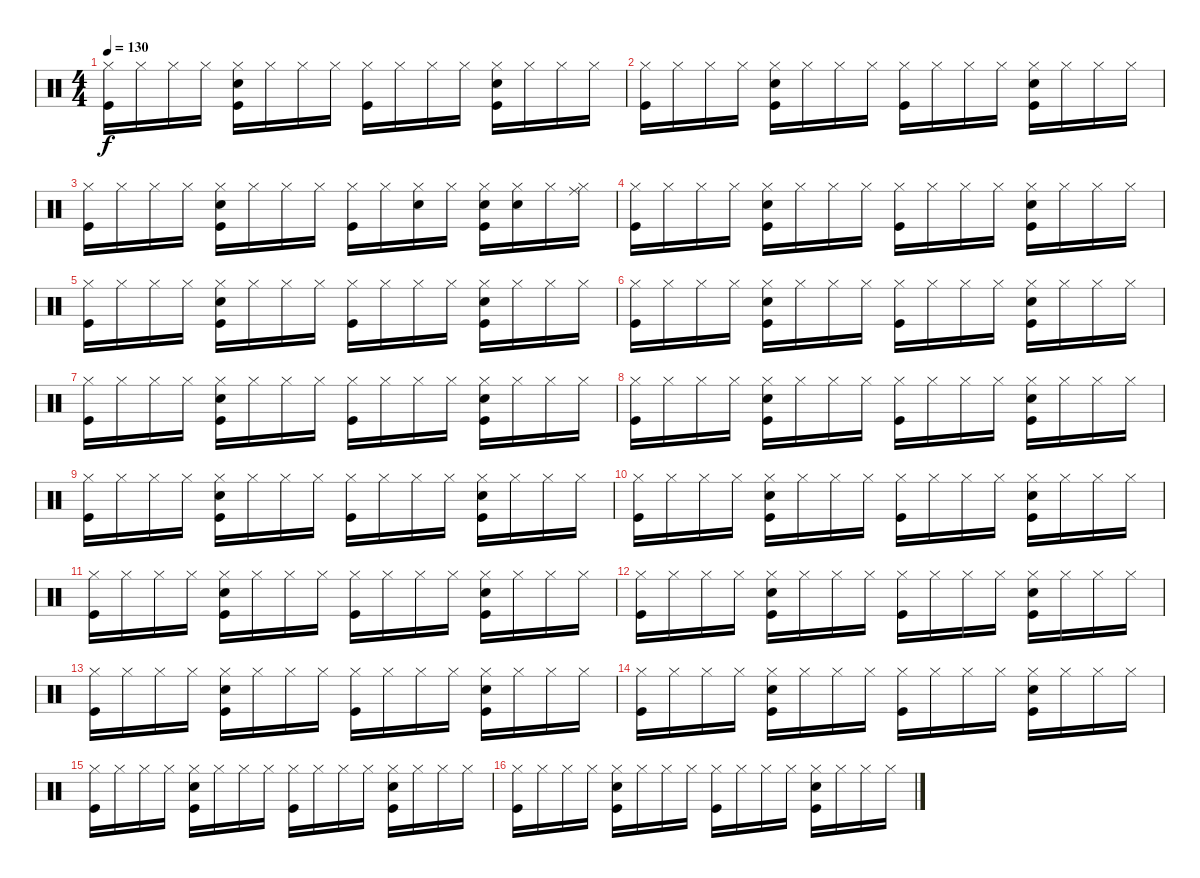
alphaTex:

\track "" {instrument percussion}
\staff {score}
\articulation defaults
\ts (4 4)
\tempo 130
\clef neutral
\ks c
("Hi-Hat (closed)" "Kick (hit)").16{dy f} "Hi-Hat (closed)".16 "Hi-Hat (closed)".16 "Hi-Hat (closed)".16 ("Snare (hit) 2" "Hi-Hat (closed)" "Kick (hit)").16 "Hi-Hat (closed)".16 "Hi-Hat (closed)".16 "Hi-Hat (closed)".16 ("Hi-Hat (closed)" "Kick (hit)").16 "Hi-Hat (closed)".16 "Hi-Hat (closed)".16 "Hi-Hat (closed)".16 ("Snare (hit) 2" "Hi-Hat (closed)" "Kick (hit)").16 "Hi-Hat (closed)".16 "Hi-Hat (closed)".16 "Hi-Hat (closed)".16 |
("Hi-Hat (closed)" "Kick (hit)").16 "Hi-Hat (closed)".16 "Hi-Hat (closed)".16 "Hi-Hat (closed)".16 ("Snare (hit) 2" "Hi-Hat (closed)" "Kick (hit)").16 "Hi-Hat (closed)".16 "Hi-Hat (closed)".16 "Hi-Hat (closed)".16 ("Hi-Hat (closed)" "Kick (hit)").16 "Hi-Hat (closed)".16 "Hi-Hat (closed)".16 "Hi-Hat (closed)".16 ("Snare (hit) 2" "Hi-Hat (closed)" "Kick (hit)").16 "Hi-Hat (closed)".16 "Hi-Hat (closed)".16 "Hi-Hat (closed)".16 |
("Hi-Hat (closed)" "Kick (hit)").16 "Hi-Hat (closed)".16 "Hi-Hat (closed)".16 "Hi-Hat (closed)".16 ("Snare (hit) 2" "Hi-Hat (closed)" "Kick (hit)").16 "Hi-Hat (closed)".16 "Hi-Hat (closed)".16 "Hi-Hat (closed)".16 ("Hi-Hat (closed)" "Kick (hit)").16 "Hi-Hat (closed)".16 ("Snare (hit) 2" "Hi-Hat (closed)").16 "Hi-Hat (closed)".16 ("Snare (hit) 2" "Hi-Hat (closed)" "Kick (hit)").16 ("Snare (hit) 2" "Hi-Hat (closed)").16 "Hi-Hat (closed)".16 ("Ride (middle)" "Hi-Hat (closed)").16 |
("Hi-Hat (closed)" "Kick (hit)").16 "Hi-Hat (closed)".16 "Hi-Hat (closed)".16 "Hi-Hat (closed)".16 ("Snare (hit) 2" "Hi-Hat (closed)" "Kick (hit)").16 "Hi-Hat (closed)".16 "Hi-Hat (closed)".16 "Hi-Hat (closed)".16 ("Hi-Hat (closed)" "Kick (hit)").16 "Hi-Hat (closed)".16 "Hi-Hat (closed)".16 "Hi-Hat (closed)".16 ("Snare (hit) 2" "Hi-Hat (closed)" "Kick (hit)").16 "Hi-Hat (closed)".16 "Hi-Hat (closed)".16 "Hi-Hat (closed)".16 |
("Hi-Hat (closed)" "Kick (hit)").16 "Hi-Hat (closed)".16 "Hi-Hat (closed)".16 "Hi-Hat (closed)".16 ("Snare (hit) 2" "Hi-Hat (closed)" "Kick (hit)").16 "Hi-Hat (closed)".16 "Hi-Hat (closed)".16 "Hi-Hat (closed)".16 ("Hi-Hat (closed)" "Kick (hit)").16 "Hi-Hat (closed)".16 "Hi-Hat (closed)".16 "Hi-Hat (closed)".16 ("Snare (hit) 2" "Hi-Hat (closed)" "Kick (hit)").16 "Hi-Hat (closed)".16 "Hi-Hat (closed)".16 "Hi-Hat (closed)".16 |
("Hi-Hat (closed)" "Kick (hit)").16 "Hi-Hat (closed)".16 "Hi-Hat (closed)".16 "Hi-Hat (closed)".16 ("Snare (hit) 2" "Hi-Hat (closed)" "Kick (hit)").16 "Hi-Hat (closed)".16 "Hi-Hat (closed)".16 "Hi-Hat (closed)".16 ("Hi-Hat (closed)" "Kick (hit)").16 "Hi-Hat (closed)".16 "Hi-Hat (closed)".16 "Hi-Hat (closed)".16 ("Snare (hit) 2" "Hi-Hat (closed)" "Kick (hit)").16 "Hi-Hat (closed)".16 "Hi-Hat (closed)".16 "Hi-Hat (closed)".16 |
("Hi-Hat (closed)" "Kick (hit)").16 "Hi-Hat (closed)".16 "Hi-Hat (closed)".16 "Hi-Hat (closed)".16 ("Snare (hit) 2" "Hi-Hat (closed)" "Kick (hit)").16 "Hi-Hat (closed)".16 "Hi-Hat (closed)".16 "Hi-Hat (closed)".16 ("Hi-Hat (closed)" "Kick (hit)").16 "Hi-Hat (closed)".16 "Hi-Hat (closed)".16 "Hi-Hat (closed)".16 ("Snare (hit) 2" "Hi-Hat (closed)" "Kick (hit)").16 "Hi-Hat (closed)".16 "Hi-Hat (closed)".16 "Hi-Hat (closed)".16 |
("Hi-Hat (closed)" "Kick (hit)").16 "Hi-Hat (closed)".16 "Hi-Hat (closed)".16 "Hi-Hat (closed)".16 ("Snare (hit) 2" "Hi-Hat (closed)" "Kick (hit)").16 "Hi-Hat (closed)".16 "Hi-Hat (closed)".16 "Hi-Hat (closed)".16 ("Hi-Hat (closed)" "Kick (hit)").16 "Hi-Hat (closed)".16 "Hi-Hat (closed)".16 "Hi-Hat (closed)".16 ("Snare (hit) 2" "Hi-Hat (closed)" "Kick (hit)").16 "Hi-Hat (closed)".16 "Hi-Hat (closed)".16 "Hi-Hat (closed)".16 |
("Hi-Hat (closed)" "Kick (hit)").16 "Hi-Hat (closed)".16 "Hi-Hat (closed)".16 "Hi-Hat (closed)".16 ("Snare (hit) 2" "Hi-Hat (closed)" "Kick (hit)").16 "Hi-Hat (closed)".16 "Hi-Hat (closed)".16 "Hi-Hat (closed)".16 ("Hi-Hat (closed)" "Kick (hit)").16 "Hi-Hat (closed)".16 "Hi-Hat (closed)".16 "Hi-Hat (closed)".16 ("Snare (hit) 2" "Hi-Hat (closed)" "Kick (hit)").16 "Hi-Hat (closed)".16 "Hi-Hat (closed)".16 "Hi-Hat (closed)".16 |
("Hi-Hat (closed)" "Kick (hit)").16 "Hi-Hat (closed)".16 "Hi-Hat (closed)".16 "Hi-Hat (closed)".16 ("Snare (hit) 2" "Hi-Hat (closed)" "Kick (hit)").16 "Hi-Hat (closed)".16 "Hi-Hat (closed)".16 "Hi-Hat (closed)".16 ("Hi-Hat (closed)" "Kick (hit)").16 "Hi-Hat (closed)".16 "Hi-Hat (closed)".16 "Hi-Hat (closed)".16 ("Snare (hit) 2" "Hi-Hat (closed)" "Kick (hit)").16 "Hi-Hat (closed)".16 "Hi-Hat (closed)".16 "Hi-Hat (closed)".16 |
("Hi-Hat (closed)" "Kick (hit)").16 "Hi-Hat (closed)".16 "Hi-Hat (closed)".16 "Hi-Hat (closed)".16 ("Snare (hit) 2" "Hi-Hat (closed)" "Kick (hit)").16 "Hi-Hat (closed)".16 "Hi-Hat (closed)".16 "Hi-Hat (closed)".16 ("Hi-Hat (closed)" "Kick (hit)").16 "Hi-Hat (closed)".16 "Hi-Hat (closed)".16 "Hi-Hat (closed)".16 ("Snare (hit) 2" "Hi-Hat (closed)" "Kick (hit)").16 "Hi-Hat (closed)".16 "Hi-Hat (closed)".16 "Hi-Hat (closed)".16 |
("Hi-Hat (closed)" "Kick (hit)").16 "Hi-Hat (closed)".16 "Hi-Hat (closed)".16 "Hi-Hat (closed)".16 ("Snare (hit) 2" "Hi-Hat (closed)" "Kick (hit)").16 "Hi-Hat (closed)".16 "Hi-Hat (closed)".16 "Hi-Hat (closed)".16 ("Hi-Hat (closed)" "Kick (hit)").16 "Hi-Hat (closed)".16 "Hi-Hat (closed)".16 "Hi-Hat (closed)".16 ("Snare (hit) 2" "Hi-Hat (closed)" "Kick (hit)").16 "Hi-Hat (closed)".16 "Hi-Hat (closed)".16 "Hi-Hat (closed)".16 |
("Hi-Hat (closed)" "Kick (hit)").16 "Hi-Hat (closed)".16 "Hi-Hat (closed)".16 "Hi-Hat (closed)".16 ("Snare (hit) 2" "Hi-Hat (closed)" "Kick (hit)").16 "Hi-Hat (closed)".16 "Hi-Hat (closed)".16 "Hi-Hat (closed)".16 ("Hi-Hat (closed)" "Kick (hit)").16 "Hi-Hat (closed)".16 "Hi-Hat (closed)".16 "Hi-Hat (closed)".16 ("Snare (hit) 2" "Hi-Hat (closed)" "Kick (hit)").16 "Hi-Hat (closed)".16 "Hi-Hat (closed)".16 "Hi-Hat (closed)".16 |
("Hi-Hat (closed)" "Kick (hit)").16 "Hi-Hat (closed)".16 "Hi-Hat (closed)".16 "Hi-Hat (closed)".16 ("Snare (hit) 2" "Hi-Hat (closed)" "Kick (hit)").16 "Hi-Hat (closed)".16 "Hi-Hat (closed)".16 "Hi-Hat (closed)".16 ("Hi-Hat (closed)" "Kick (hit)").16 "Hi-Hat (closed)".16 "Hi-Hat (closed)".16 "Hi-Hat (closed)".16 ("Snare (hit) 2" "Hi-Hat (closed)" "Kick (hit)").16 "Hi-Hat (closed)".16 "Hi-Hat (closed)".16 "Hi-Hat (closed)".16 |
("Hi-Hat (closed)" "Kick (hit)").16 "Hi-Hat (closed)".16 "Hi-Hat (closed)".16 "Hi-Hat (closed)".16 ("Snare (hit) 2" "Hi-Hat (closed)" "Kick (hit)").16 "Hi-Hat (closed)".16 "Hi-Hat (closed)".16 "Hi-Hat (closed)".16 ("Hi-Hat (closed)" "Kick (hit)").16 "Hi-Hat (closed)".16 "Hi-Hat (closed)".16 "Hi-Hat (closed)".16 ("Snare (hit) 2" "Hi-Hat (closed)" "Kick (hit)").16 "Hi-Hat (closed)".16 "Hi-Hat (closed)".16 "Hi-Hat (closed)".16 |
("Hi-Hat (closed)" "Kick (hit)").16 "Hi-Hat (closed)".16 "Hi-Hat (closed)".16 "Hi-Hat (closed)".16 ("Snare (hit) 2" "Hi-Hat (closed)" "Kick (hit)").16 "Hi-Hat (closed)".16 "Hi-Hat (closed)".16 "Hi-Hat (closed)".16 ("Hi-Hat (closed)" "Kick (hit)").16 "Hi-Hat (closed)".16 "Hi-Hat (closed)".16 "Hi-Hat (closed)".16 ("Snare (hit) 2" "Hi-Hat (closed)" "Kick (hit)").16 "Hi-Hat (closed)".16 "Hi-Hat (closed)".16 "Hi-Hat (closed)".16
